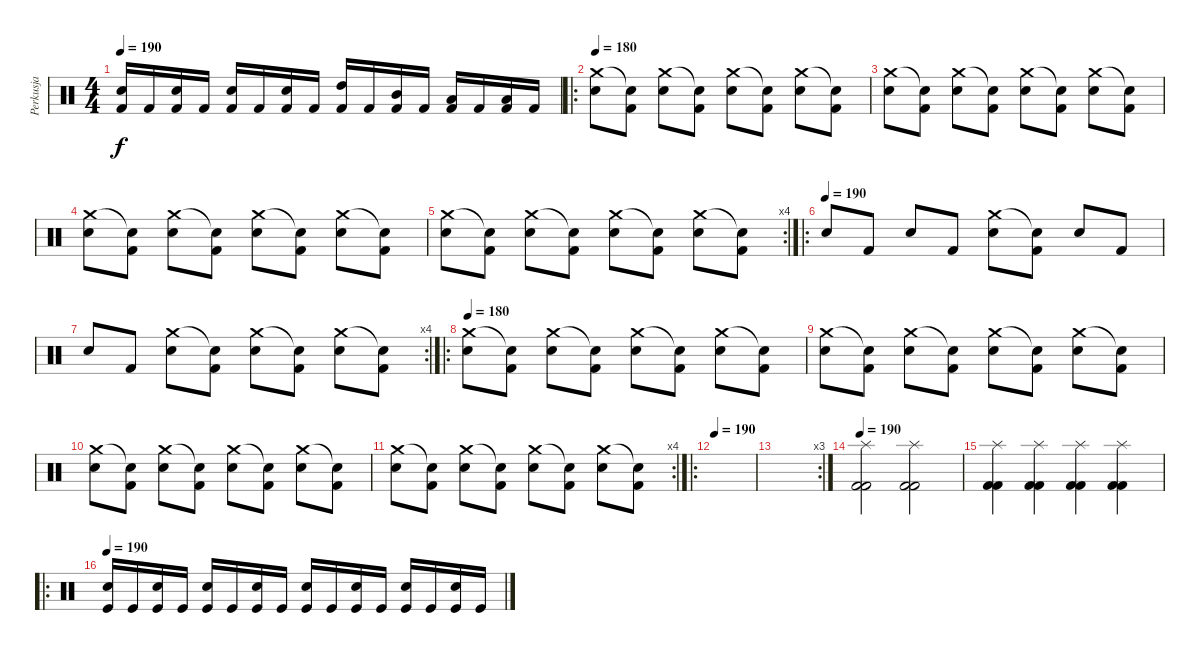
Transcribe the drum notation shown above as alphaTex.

\track ("Perkusja" "Perkusja") {instrument percussion}
\staff {score}
\articulation defaults
\ts (4 4)
\tempo 190
\clef neutral
\ks c
("Electric Snare (hit)" "Kick (hit) 2").16{dy f} "Kick (hit) 2".16 ("Electric Snare (hit)" "Kick (hit) 2").16 "Kick (hit) 2".16 ("Snare (hit) 2" "Kick (hit) 2").16 "Kick (hit) 2".16 ("Snare (hit) 2" "Kick (hit) 2").16 "Kick (hit) 2".16 ("High Tom (hit)" "Kick (hit) 2").16 "Kick (hit) 2".16 ("Mid Tom (hit)" "Kick (hit) 2").16 "Kick (hit) 2".16 ("Low Tom (hit)" "Kick (hit) 2").16 "Kick (hit) 2".16 ("Low Floor Tom (hit)" "Kick (hit) 2").16 "Kick (hit) 2".16 |
\ro
\tempo 180
("Crash medium (hit)" "Snare (hit) 2").8 ("Snare (hit)"{t} "Kick (hit) 2").8 ("Crash medium (hit)" "Snare (hit) 2").8 ("Snare (hit)"{t} "Kick (hit) 2").8 ("Crash medium (hit)" "Snare (hit) 2").8 ("Snare (hit)"{t} "Kick (hit) 2").8 ("Crash medium (hit)" "Snare (hit) 2").8 ("Snare (hit)"{t} "Kick (hit) 2").8 |
("Crash medium (hit)" "Snare (hit) 2").8 ("Snare (hit)"{t} "Kick (hit) 2").8 ("Crash medium (hit)" "Snare (hit) 2").8 ("Snare (hit)"{t} "Kick (hit) 2").8 ("Crash medium (hit)" "Snare (hit) 2").8 ("Snare (hit)"{t} "Kick (hit) 2").8 ("Crash medium (hit)" "Snare (hit) 2").8 ("Snare (hit)"{t} "Kick (hit) 2").8 |
("Crash medium (hit)" "Snare (hit) 2").8 ("Snare (hit)"{t} "Kick (hit) 2").8 ("Crash medium (hit)" "Snare (hit) 2").8 ("Snare (hit)"{t} "Kick (hit) 2").8 ("Crash medium (hit)" "Snare (hit) 2").8 ("Snare (hit)"{t} "Kick (hit) 2").8 ("Crash medium (hit)" "Snare (hit) 2").8 ("Snare (hit)"{t} "Kick (hit) 2").8 |
\rc 4
("Crash medium (hit)" "Snare (hit) 2").8 ("Snare (hit)"{t} "Kick (hit) 2").8 ("Crash medium (hit)" "Snare (hit) 2").8 ("Snare (hit)"{t} "Kick (hit) 2").8 ("Crash medium (hit)" "Snare (hit) 2").8 ("Snare (hit)"{t} "Kick (hit) 2").8 ("Crash medium (hit)" "Snare (hit) 2").8 ("Snare (hit)"{t} "Kick (hit) 2").8 |
\ro
\tempo (190)
"Snare (hit) 2".8 "Kick (hit) 2".8 "Snare (hit) 2".8 "Kick (hit) 2".8 ("Crash medium (hit)" "Snare (hit) 2").8 ("Snare (hit)"{t} "Kick (hit) 2").8 "Snare (hit) 2".8 "Kick (hit) 2".8 |
\rc 4 "Snare (hit) 2".8 "Kick (hit) 2".8
("Crash medium (hit)" "Snare (hit) 2").8 ("Snare (hit)"{t} "Kick (hit) 2").8 ("Crash medium (hit)" "Snare (hit) 2").8 ("Snare (hit)"{t} "Kick (hit) 2").8 ("Crash medium (hit)" "Snare (hit) 2").8 ("Snare (hit)"{t} "Kick (hit) 2").8 |
\ro
\tempo 180
("Crash medium (hit)" "Snare (hit) 2").8 ("Snare (hit)"{t} "Kick (hit) 2").8 ("Crash medium (hit)" "Snare (hit) 2").8 ("Snare (hit)"{t} "Kick (hit) 2").8 ("Crash medium (hit)" "Snare (hit) 2").8 ("Snare (hit)"{t} "Kick (hit) 2").8 ("Crash medium (hit)" "Snare (hit) 2").8 ("Snare (hit)"{t} "Kick (hit) 2").8 |
("Crash medium (hit)" "Snare (hit) 2").8 ("Snare (hit)"{t} "Kick (hit) 2").8 ("Crash medium (hit)" "Snare (hit) 2").8 ("Snare (hit)"{t} "Kick (hit) 2").8 ("Crash medium (hit)" "Snare (hit) 2").8 ("Snare (hit)"{t} "Kick (hit) 2").8 ("Crash medium (hit)" "Snare (hit) 2").8 ("Snare (hit)"{t} "Kick (hit) 2").8 |
("Crash medium (hit)" "Snare (hit) 2").8 ("Snare (hit)"{t} "Kick (hit) 2").8 ("Crash medium (hit)" "Snare (hit) 2").8 ("Snare (hit)"{t} "Kick (hit) 2").8 ("Crash medium (hit)" "Snare (hit) 2").8 ("Snare (hit)"{t} "Kick (hit) 2").8 ("Crash medium (hit)" "Snare (hit) 2").8 ("Snare (hit)"{t} "Kick (hit) 2").8 |
\rc 4
("Crash medium (hit)" "Snare (hit) 2").8 ("Snare (hit)"{t} "Kick (hit) 2").8 ("Crash medium (hit)" "Snare (hit) 2").8 ("Snare (hit)"{t} "Kick (hit) 2").8 ("Crash medium (hit)" "Snare (hit) 2").8 ("Snare (hit)"{t} "Kick (hit) 2").8 ("Crash medium (hit)" "Snare (hit) 2").8 ("Snare (hit)"{t} "Kick (hit) 2").8 |
\ro
\tempo 190
|
\rc 3
|
\tempo 190
("Splash (hit)" "Kick (hit) 2" "Kick (hit) 2").2 ("Splash (hit)" "Kick (hit) 2" "Kick (hit) 2").2 |
("Splash (hit)" "Kick (hit) 2" "Kick (hit) 2").4 ("Splash (hit)" "Kick (hit) 2" "Kick (hit) 2").4 ("Splash (hit)" "Kick (hit) 2" "Kick (hit) 2").4 ("Splash (hit)" "Kick (hit) 2" "Kick (hit) 2").4 |
\ro
\tempo 190
("Snare (hit) 2" "Kick (hit)").16 "Kick (hit)".16 ("Snare (hit) 2" "Kick (hit)").16 "Kick (hit)".16 ("Snare (hit) 2" "Kick (hit)").16 "Kick (hit)".16 ("Snare (hit) 2" "Kick (hit)").16 "Kick (hit)".16 ("Snare (hit) 2" "Kick (hit)").16 "Kick (hit)".16 ("Snare (hit) 2" "Kick (hit)").16 "Kick (hit)".16 ("Snare (hit) 2" "Kick (hit)").16 "Kick (hit)".16 ("Snare (hit) 2" "Kick (hit)").16 "Kick (hit)".16
